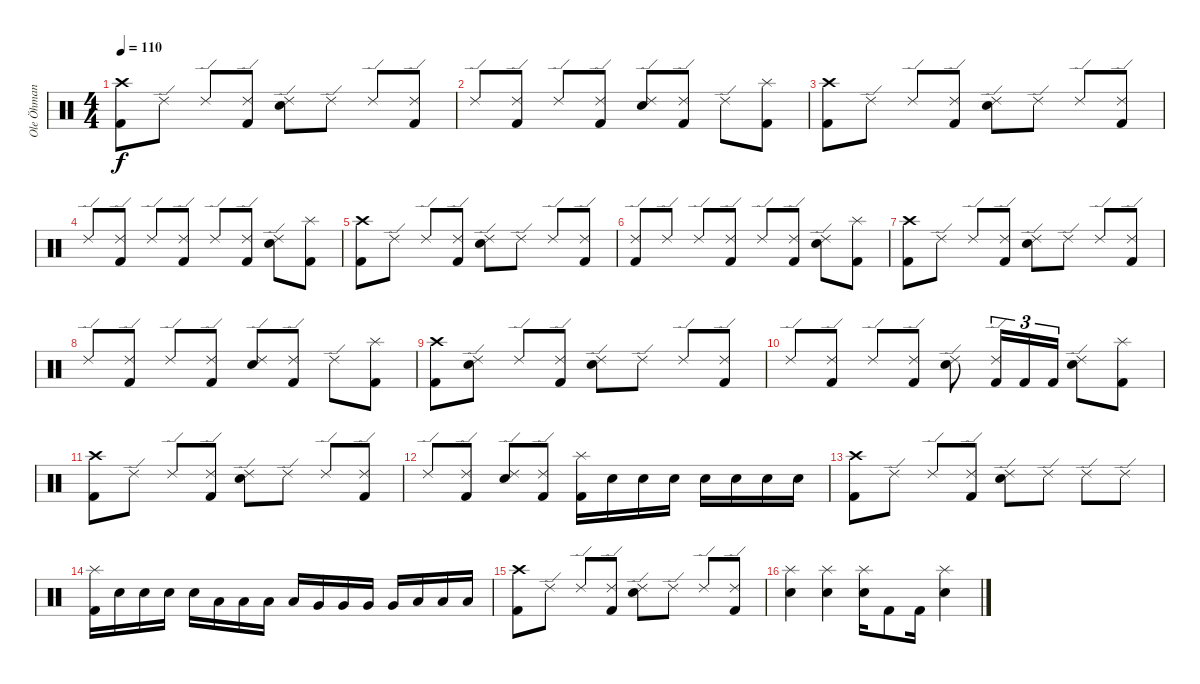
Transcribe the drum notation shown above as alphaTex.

\track ("Ole Öhman" "Ole Öhman") {instrument percussion}
\staff {score}
\articulation defaults
\ts (4 4)
\tempo 110
\clef neutral
\ks c
("Crash high (hit)" "Kick (hit) 2").8{dy f} "Ride (edge) 2".8 "Ride (edge) 2".8 ("Ride (edge) 2" "Kick (hit) 2").8 ("Ride (edge) 2" "Electric Snare (hit)").8 "Ride (edge) 2".8 "Ride (edge) 2".8 ("Ride (edge) 2" "Kick (hit) 2").8 |
"Ride (edge) 2".8 ("Ride (edge) 2" "Kick (hit) 2").8 "Ride (edge) 2".8 ("Ride (edge) 2" "Kick (hit) 2").8 ("Ride (edge) 2" "Electric Snare (hit)").8 ("Ride (edge) 2" "Kick (hit) 2").8 "Ride (edge) 2".8 ("Splash (hit)" "Kick (hit) 2").8 |
("Crash high (hit)" "Kick (hit) 2").8 "Ride (edge) 2".8 "Ride (edge) 2".8 ("Ride (edge) 2" "Kick (hit) 2").8 ("Ride (edge) 2" "Electric Snare (hit)").8 "Ride (edge) 2".8 "Ride (edge) 2".8 ("Ride (edge) 2" "Kick (hit) 2").8 |
"Ride (edge) 2".8 ("Ride (edge) 2" "Kick (hit) 2").8 "Ride (edge) 2".8 ("Ride (edge) 2" "Kick (hit) 2").8 "Ride (edge) 2".8 ("Ride (edge) 2" "Kick (hit) 2").8 ("Ride (edge) 2" "Electric Snare (hit)").8 ("Splash (hit)" "Kick (hit) 2").8 |
("Crash high (hit)" "Kick (hit) 2").8 "Ride (edge) 2".8 "Ride (edge) 2".8 ("Ride (edge) 2" "Kick (hit) 2").8 ("Ride (edge) 2" "Electric Snare (hit)").8 "Ride (edge) 2".8 "Ride (edge) 2".8 ("Ride (edge) 2" "Kick (hit) 2").8 |
("Ride (edge) 2" "Kick (hit) 2").8 "Ride (edge) 2".8 "Ride (edge) 2".8 ("Ride (edge) 2" "Kick (hit) 2").8 "Ride (edge) 2".8 ("Ride (edge) 2" "Kick (hit) 2").8 ("Ride (edge) 2" "Electric Snare (hit)").8 ("Splash (hit)" "Kick (hit) 2").8 |
("Crash high (hit)" "Kick (hit) 2").8 "Ride (edge) 2".8 "Ride (edge) 2".8 ("Ride (edge) 2" "Kick (hit) 2").8 ("Ride (edge) 2" "Electric Snare (hit)").8 "Ride (edge) 2".8 "Ride (edge) 2".8 ("Ride (edge) 2" "Kick (hit) 2").8 |
"Ride (edge) 2".8 ("Ride (edge) 2" "Kick (hit) 2").8 "Ride (edge) 2".8 ("Ride (edge) 2" "Kick (hit) 2").8 ("Ride (edge) 2" "Electric Snare (hit)").8 ("Ride (edge) 2" "Kick (hit) 2").8 "Ride (edge) 2".8 ("Splash (hit)" "Kick (hit) 2").8 |
("Crash high (hit)" "Kick (hit) 2").8 ("Ride (edge) 2" "Electric Snare (hit)").8 "Ride (edge) 2".8 ("Ride (edge) 2" "Kick (hit) 2").8 ("Ride (edge) 2" "Electric Snare (hit)").8 "Ride (edge) 2".8 "Ride (edge) 2".8 ("Ride (edge) 2" "Kick (hit) 2").8 |
"Ride (edge) 2".8 ("Ride (edge) 2" "Kick (hit) 2").8 "Ride (edge) 2".8 ("Ride (edge) 2" "Kick (hit) 2").8 ("Ride (edge) 2" "Electric Snare (hit)").8 ("Ride (edge) 2" "Kick (hit) 2").16{tu (3 2)} "Kick (hit) 2".16{tu (3 2)} "Kick (hit) 2".16{tu (3 2)} ("Ride (edge) 2" "Electric Snare (hit)").8 ("Splash (hit)" "Kick (hit) 2").8 |
("Crash high (hit)" "Kick (hit) 2").8 "Ride (edge) 2".8 "Ride (edge) 2".8 ("Ride (edge) 2" "Kick (hit) 2").8 ("Ride (edge) 2" "Electric Snare (hit)").8 "Ride (edge) 2".8 "Ride (edge) 2".8 ("Ride (edge) 2" "Kick (hit) 2").8 |
"Ride (edge) 2".8 ("Ride (edge) 2" "Kick (hit) 2").8 ("Ride (edge) 2" "Electric Snare (hit)").8 ("Ride (edge) 2" "Kick (hit) 2").8 ("Splash (hit)" "Kick (hit) 2").16 "Electric Snare (hit)".16 "Electric Snare (hit)".16 "Electric Snare (hit)".16 "Electric Snare (hit)".16 "Electric Snare (hit)".16 "Electric Snare (hit)".16 "Electric Snare (hit)".16 |
("Crash high (hit)" "Kick (hit) 2").8 "Ride (edge) 2".8 "Ride (edge) 2".8 ("Ride (edge) 2" "Kick (hit) 2").8 ("Ride (edge) 2" "Electric Snare (hit)").8 "Ride (edge) 2".8 "Ride (edge) 2".8 "Ride (edge) 2".8 |
("Splash (hit)" "Kick (hit) 2").16 "Electric Snare (hit)".16 "Electric Snare (hit)".16 "Electric Snare (hit)".16 "Electric Snare (hit)".16 "Low Tom (hit)".16 "Low Tom (hit)".16 "Low Tom (hit)".16 "Low Tom (hit)".16 "Very Low Tom (hit)".16 "Very Low Tom (hit)".16 "Very Low Tom (hit)".16 "Very Low Tom (hit)".16 "Low Floor Tom (hit)".16 "Low Floor Tom (hit)".16 "Low Floor Tom (hit)".16 |
("Crash high (hit)" "Kick (hit) 2").8 "Ride (edge) 2".8 "Ride (edge) 2".8 ("Ride (edge) 2" "Kick (hit) 2").8 ("Ride (edge) 2" "Electric Snare (hit)").8 "Ride (edge) 2".8 "Ride (edge) 2".8 ("Ride (edge) 2" "Kick (hit) 2").8 |
("Splash (hit)" "Electric Snare (hit)").4 ("Splash (hit)" "Electric Snare (hit)").4 ("Splash (hit)" "Electric Snare (hit)").16 "Kick (hit) 2".8 "Kick (hit) 2".16 ("Splash (hit)" "Electric Snare (hit)").4
